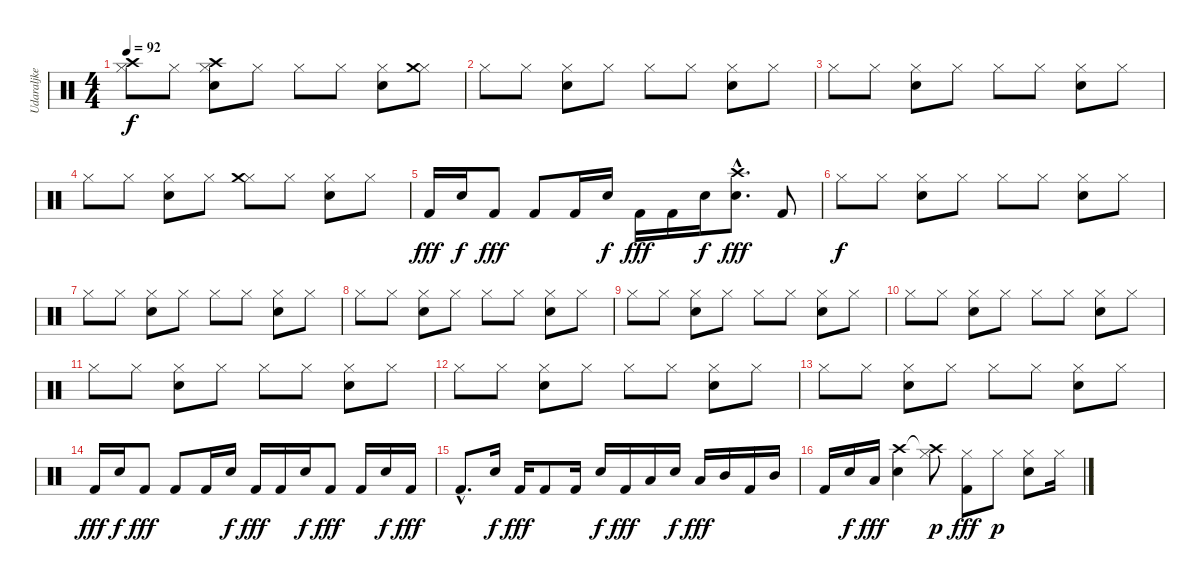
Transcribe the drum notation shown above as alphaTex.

\track ("Udaraljke" "Udaraljke") {instrument percussion}
\staff {score}
\articulation defaults
\ts (4 4)
\tempo 92
\clef neutral
\ks c
("Hi-Hat (closed)" "Crash high (hit)").8{dy f} "Hi-Hat (closed)".8 ("Hi-Hat (closed)" "Electric Snare (hit)" "Crash high (hit)").8 "Hi-Hat (closed)".8 "Hi-Hat (closed)".8 "Hi-Hat (closed)".8 ("Hi-Hat (closed)" "Electric Snare (hit)").8 ("Hi-Hat (closed)" "Crash medium (hit)").8 |
"Hi-Hat (closed)".8 "Hi-Hat (closed)".8 ("Hi-Hat (closed)" "Electric Snare (hit)").8 "Hi-Hat (closed)".8 "Hi-Hat (closed)".8 "Hi-Hat (closed)".8 ("Hi-Hat (closed)" "Electric Snare (hit)").8 "Hi-Hat (closed)".8 |
"Hi-Hat (closed)".8 "Hi-Hat (closed)".8 ("Hi-Hat (closed)" "Electric Snare (hit)").8 "Hi-Hat (closed)".8 "Hi-Hat (closed)".8 "Hi-Hat (closed)".8 ("Hi-Hat (closed)" "Electric Snare (hit)").8 "Hi-Hat (closed)".8 |
"Hi-Hat (closed)".8 "Hi-Hat (closed)".8 ("Hi-Hat (closed)" "Electric Snare (hit)").8 "Hi-Hat (closed)".8 ("Hi-Hat (closed)" "Crash medium (hit)").8 "Hi-Hat (closed)".8 ("Hi-Hat (closed)" "Electric Snare (hit)").8 "Hi-Hat (closed)".8 |
"Kick (hit) 2".16{dy fff} "Electric Snare (hit)".16{dy f} "Kick (hit) 2".8{dy fff} "Kick (hit) 2".8 "Kick (hit) 2".16 "Electric Snare (hit)".16{dy f} "Kick (hit) 2".16{dy fff} "Kick (hit) 2".16 "Electric Snare (hit)".16{dy f} ("Crash high (hit)"{hac} "Electric Snare (hit)"{hac}).8{d dy fff} "Kick (hit) 2".8 |
"Hi-Hat (closed)".8{dy f} "Hi-Hat (closed)".8 ("Hi-Hat (closed)" "Electric Snare (hit)").8 "Hi-Hat (closed)".8 "Hi-Hat (closed)".8 "Hi-Hat (closed)".8 ("Hi-Hat (closed)" "Electric Snare (hit)").8 "Hi-Hat (closed)".8 |
"Hi-Hat (closed)".8 "Hi-Hat (closed)".8 ("Hi-Hat (closed)" "Electric Snare (hit)").8 "Hi-Hat (closed)".8 "Hi-Hat (closed)".8 "Hi-Hat (closed)".8 ("Hi-Hat (closed)" "Electric Snare (hit)").8 "Hi-Hat (closed)".8 |
"Hi-Hat (closed)".8 "Hi-Hat (closed)".8 ("Hi-Hat (closed)" "Electric Snare (hit)").8 "Hi-Hat (closed)".8 "Hi-Hat (closed)".8 "Hi-Hat (closed)".8 ("Hi-Hat (closed)" "Electric Snare (hit)").8 "Hi-Hat (closed)".8 |
"Hi-Hat (closed)".8 "Hi-Hat (closed)".8 ("Hi-Hat (closed)" "Electric Snare (hit)").8 "Hi-Hat (closed)".8 "Hi-Hat (closed)".8 "Hi-Hat (closed)".8 ("Hi-Hat (closed)" "Electric Snare (hit)").8 "Hi-Hat (closed)".8 |
"Hi-Hat (closed)".8 "Hi-Hat (closed)".8 ("Hi-Hat (closed)" "Electric Snare (hit)").8 "Hi-Hat (closed)".8 "Hi-Hat (closed)".8 "Hi-Hat (closed)".8 ("Hi-Hat (closed)" "Electric Snare (hit)").8 "Hi-Hat (closed)".8 |
"Hi-Hat (closed)".8 "Hi-Hat (closed)".8 ("Hi-Hat (closed)" "Electric Snare (hit)").8 "Hi-Hat (closed)".8 "Hi-Hat (closed)".8 "Hi-Hat (closed)".8 ("Hi-Hat (closed)" "Electric Snare (hit)").8 "Hi-Hat (closed)".8 |
"Hi-Hat (closed)".8 "Hi-Hat (closed)".8 ("Hi-Hat (closed)" "Electric Snare (hit)").8 "Hi-Hat (closed)".8 "Hi-Hat (closed)".8 "Hi-Hat (closed)".8 ("Hi-Hat (closed)" "Electric Snare (hit)").8 "Hi-Hat (closed)".8 |
"Hi-Hat (closed)".8 "Hi-Hat (closed)".8 ("Hi-Hat (closed)" "Electric Snare (hit)").8 "Hi-Hat (closed)".8 "Hi-Hat (closed)".8 "Hi-Hat (closed)".8 ("Hi-Hat (closed)" "Electric Snare (hit)").8 "Hi-Hat (closed)".8 |
"Kick (hit) 2".16{dy fff} "Electric Snare (hit)".16{dy f} "Kick (hit) 2".8{dy fff} "Kick (hit) 2".8 "Kick (hit) 2".16 "Electric Snare (hit)".16{dy f} "Kick (hit) 2".16{dy fff} "Kick (hit) 2".16 "Electric Snare (hit)".16{dy f} "Kick (hit) 2".8{dy fff} "Kick (hit) 2".16 "Electric Snare (hit)".16{dy f} "Kick (hit) 2".16{dy fff} |
"Kick (hit) 2"{hac}.8{d} "Electric Snare (hit)".16{dy f} "Kick (hit) 2".16{dy fff} "Kick (hit) 2".8 "Kick (hit) 2".16 "Electric Snare (hit)".16{dy f} "Kick (hit) 2".16{dy fff} "Low Tom (hit)".16 "Electric Snare (hit)".16{dy f} "Low Floor Tom (hit)".16{dy fff} "Mid Tom (hit)".16 "Kick (hit) 2".16 "Mid Tom (hit)".16 |
"Kick (hit) 2".16 "Electric Snare (hit)".16{dy f} "Low Floor Tom (hit)".16{dy fff} ("Electric Snare (hit)" "Crash high (hit)").4 ("Hi-Hat (closed)" "Crash high (hit)"{t}).8{dy p} ("Hi-Hat (closed)" "Kick (hit) 2").8{dy fff} "Hi-Hat (closed)".8{dy p} ("Hi-Hat (closed)" "Electric Snare (hit)").8 "Hi-Hat (closed)".16
